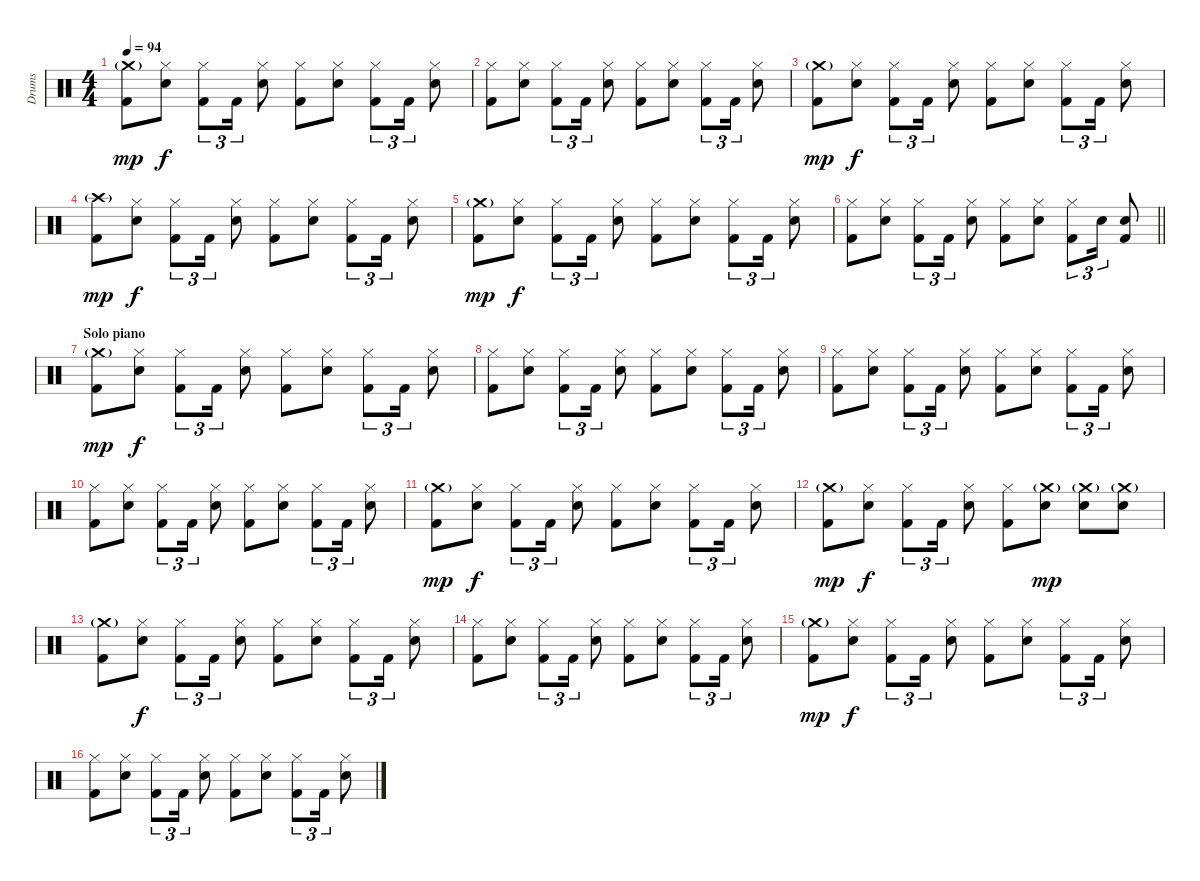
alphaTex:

\track ("Drums" "Drums") {instrument percussion}
\staff {score}
\articulation defaults
\ts (4 4)
\tempo 94
\clef neutral
\ks c
("Crash medium (hit)"{g} "Kick (hit) 2").8{dy mp} ("Hi-Hat (closed)" "Electric Snare (hit)").8{dy f} ("Hi-Hat (closed)" "Kick (hit) 2").8{tu (3 2)} "Kick (hit) 2".16{tu (3 2)} ("Hi-Hat (closed)" "Electric Snare (hit)").8 ("Hi-Hat (closed)" "Kick (hit) 2").8 ("Hi-Hat (closed)" "Electric Snare (hit)").8 ("Hi-Hat (closed)" "Kick (hit) 2").8{tu (3 2)} "Kick (hit) 2".16{tu (3 2)} ("Hi-Hat (closed)" "Electric Snare (hit)").8 |
("Hi-Hat (closed)" "Kick (hit) 2").8 ("Hi-Hat (closed)" "Electric Snare (hit)").8 ("Hi-Hat (closed)" "Kick (hit) 2").8{tu (3 2)} "Kick (hit) 2".16{tu (3 2)} ("Hi-Hat (closed)" "Electric Snare (hit)").8 ("Hi-Hat (closed)" "Kick (hit) 2").8 ("Hi-Hat (closed)" "Electric Snare (hit)").8 ("Hi-Hat (closed)" "Kick (hit) 2").8{tu (3 2)} "Kick (hit) 2".16{tu (3 2)} ("Hi-Hat (closed)" "Electric Snare (hit)").8 |
("Crash medium (hit)"{g} "Kick (hit) 2").8{dy mp} ("Hi-Hat (closed)" "Electric Snare (hit)").8{dy f} ("Hi-Hat (closed)" "Kick (hit) 2").8{tu (3 2)} "Kick (hit) 2".16{tu (3 2)} ("Hi-Hat (closed)" "Electric Snare (hit)").8 ("Hi-Hat (closed)" "Kick (hit) 2").8 ("Hi-Hat (closed)" "Electric Snare (hit)").8 ("Hi-Hat (closed)" "Kick (hit) 2").8{tu (3 2)} "Kick (hit) 2".16{tu (3 2)} ("Hi-Hat (closed)" "Electric Snare (hit)").8 |
("Crash high (hit)"{g} "Kick (hit) 2").8{dy mp} ("Hi-Hat (closed)" "Electric Snare (hit)").8{dy f} ("Hi-Hat (closed)" "Kick (hit) 2").8{tu (3 2)} "Kick (hit) 2".16{tu (3 2)} ("Hi-Hat (closed)" "Electric Snare (hit)").8 ("Hi-Hat (closed)" "Kick (hit) 2").8 ("Hi-Hat (closed)" "Electric Snare (hit)").8 ("Hi-Hat (closed)" "Kick (hit) 2").8{tu (3 2)} "Kick (hit) 2".16{tu (3 2)} ("Hi-Hat (closed)" "Electric Snare (hit)").8 |
("Crash medium (hit)"{g} "Kick (hit) 2").8{dy mp} ("Hi-Hat (closed)" "Electric Snare (hit)").8{dy f} ("Hi-Hat (closed)" "Kick (hit) 2").8{tu (3 2)} "Kick (hit) 2".16{tu (3 2)} ("Hi-Hat (closed)" "Electric Snare (hit)").8 ("Hi-Hat (closed)" "Kick (hit) 2").8 ("Hi-Hat (closed)" "Electric Snare (hit)").8 ("Hi-Hat (closed)" "Kick (hit) 2").8{tu (3 2)} "Kick (hit) 2".16{tu (3 2)} ("Hi-Hat (closed)" "Electric Snare (hit)").8 |
\barLineRight lightlight
("Hi-Hat (closed)" "Kick (hit) 2").8 ("Hi-Hat (closed)" "Electric Snare (hit)").8 ("Hi-Hat (closed)" "Kick (hit) 2").8{tu (3 2)} "Kick (hit) 2".16{tu (3 2)} ("Hi-Hat (closed)" "Electric Snare (hit)").8 ("Hi-Hat (closed)" "Kick (hit) 2").8 ("Hi-Hat (closed)" "Electric Snare (hit)").8 ("Hi-Hat (closed)" "Kick (hit) 2").8{tu (3 2)} "Electric Snare (hit)".16{tu (3 2)} ("Electric Snare (hit)" "Kick (hit) 2").8 |
\section ("" "Solo piano")
("Crash medium (hit)"{g} "Kick (hit) 2").8{dy mp} ("Hi-Hat (closed)" "Electric Snare (hit)").8{dy f} ("Hi-Hat (closed)" "Kick (hit) 2").8{tu (3 2)} "Kick (hit) 2".16{tu (3 2)} ("Hi-Hat (closed)" "Electric Snare (hit)").8 ("Hi-Hat (closed)" "Kick (hit) 2").8 ("Hi-Hat (closed)" "Electric Snare (hit)").8 ("Hi-Hat (closed)" "Kick (hit) 2").8{tu (3 2)} "Kick (hit) 2".16{tu (3 2)} ("Hi-Hat (closed)" "Electric Snare (hit)").8 |
("Hi-Hat (closed)" "Kick (hit) 2").8 ("Hi-Hat (closed)" "Electric Snare (hit)").8 ("Hi-Hat (closed)" "Kick (hit) 2").8{tu (3 2)} "Kick (hit) 2".16{tu (3 2)} ("Hi-Hat (closed)" "Electric Snare (hit)").8 ("Hi-Hat (closed)" "Kick (hit) 2").8 ("Hi-Hat (closed)" "Electric Snare (hit)").8 ("Hi-Hat (closed)" "Kick (hit) 2").8{tu (3 2)} "Kick (hit) 2".16{tu (3 2)} ("Hi-Hat (closed)" "Electric Snare (hit)").8 |
("Hi-Hat (closed)" "Kick (hit) 2").8 ("Hi-Hat (closed)" "Electric Snare (hit)").8 ("Hi-Hat (closed)" "Kick (hit) 2").8{tu (3 2)} "Kick (hit) 2".16{tu (3 2)} ("Hi-Hat (closed)" "Electric Snare (hit)").8 ("Hi-Hat (closed)" "Kick (hit) 2").8 ("Hi-Hat (closed)" "Electric Snare (hit)").8 ("Hi-Hat (closed)" "Kick (hit) 2").8{tu (3 2)} "Kick (hit) 2".16{tu (3 2)} ("Hi-Hat (closed)" "Electric Snare (hit)").8 |
("Hi-Hat (closed)" "Kick (hit) 2").8 ("Hi-Hat (closed)" "Electric Snare (hit)").8 ("Hi-Hat (closed)" "Kick (hit) 2").8{tu (3 2)} "Kick (hit) 2".16{tu (3 2)} ("Hi-Hat (closed)" "Electric Snare (hit)").8 ("Hi-Hat (closed)" "Kick (hit) 2").8 ("Hi-Hat (closed)" "Electric Snare (hit)").8 ("Hi-Hat (closed)" "Kick (hit) 2").8{tu (3 2)} "Kick (hit) 2".16{tu (3 2)} ("Hi-Hat (closed)" "Electric Snare (hit)").8 |
("Crash medium (hit)"{g} "Kick (hit) 2").8{dy mp} ("Hi-Hat (closed)" "Electric Snare (hit)").8{dy f} ("Hi-Hat (closed)" "Kick (hit) 2").8{tu (3 2)} "Kick (hit) 2".16{tu (3 2)} ("Hi-Hat (closed)" "Electric Snare (hit)").8 ("Hi-Hat (closed)" "Kick (hit) 2").8 ("Hi-Hat (closed)" "Electric Snare (hit)").8 ("Hi-Hat (closed)" "Kick (hit) 2").8{tu (3 2)} "Kick (hit) 2".16{tu (3 2)} ("Hi-Hat (closed)" "Electric Snare (hit)").8 |
("Crash medium (hit)"{g} "Kick (hit) 2").8{dy mp} ("Hi-Hat (closed)" "Electric Snare (hit)").8{dy f} ("Hi-Hat (closed)" "Kick (hit) 2").8{tu (3 2)} "Kick (hit) 2".16{tu (3 2)} ("Hi-Hat (closed)" "Electric Snare (hit)").8 ("Hi-Hat (closed)" "Kick (hit) 2").8 ("Crash medium (hit)"{g} "Electric Snare (hit)").8{dy mp} ("Crash medium (hit)"{g} "Electric Snare (hit)").8 ("Crash medium (hit)"{g} "Electric Snare (hit)").8 |
("Crash medium (hit)"{g} "Kick (hit) 2").8 ("Hi-Hat (closed)" "Electric Snare (hit)").8{dy f} ("Hi-Hat (closed)" "Kick (hit) 2").8{tu (3 2)} "Kick (hit) 2".16{tu (3 2)} ("Hi-Hat (closed)" "Electric Snare (hit)").8 ("Hi-Hat (closed)" "Kick (hit) 2").8 ("Hi-Hat (closed)" "Electric Snare (hit)").8 ("Hi-Hat (closed)" "Kick (hit) 2").8{tu (3 2)} "Kick (hit) 2".16{tu (3 2)} ("Hi-Hat (closed)" "Electric Snare (hit)").8 |
("Hi-Hat (closed)" "Kick (hit) 2").8 ("Hi-Hat (closed)" "Electric Snare (hit)").8 ("Hi-Hat (closed)" "Kick (hit) 2").8{tu (3 2)} "Kick (hit) 2".16{tu (3 2)} ("Hi-Hat (closed)" "Electric Snare (hit)").8 ("Hi-Hat (closed)" "Kick (hit) 2").8 ("Hi-Hat (closed)" "Electric Snare (hit)").8 ("Hi-Hat (closed)" "Kick (hit) 2").8{tu (3 2)} "Kick (hit) 2".16{tu (3 2)} ("Hi-Hat (closed)" "Electric Snare (hit)").8 |
("Crash medium (hit)"{g} "Kick (hit) 2").8{dy mp} ("Hi-Hat (closed)" "Electric Snare (hit)").8{dy f} ("Hi-Hat (closed)" "Kick (hit) 2").8{tu (3 2)} "Kick (hit) 2".16{tu (3 2)} ("Hi-Hat (closed)" "Electric Snare (hit)").8 ("Hi-Hat (closed)" "Kick (hit) 2").8 ("Hi-Hat (closed)" "Electric Snare (hit)").8 ("Hi-Hat (closed)" "Kick (hit) 2").8{tu (3 2)} "Kick (hit) 2".16{tu (3 2)} ("Hi-Hat (closed)" "Electric Snare (hit)").8 |
("Hi-Hat (closed)" "Kick (hit) 2").8 ("Hi-Hat (closed)" "Electric Snare (hit)").8 ("Hi-Hat (closed)" "Kick (hit) 2").8{tu (3 2)} "Kick (hit) 2".16{tu (3 2)} ("Hi-Hat (closed)" "Electric Snare (hit)").8 ("Hi-Hat (closed)" "Kick (hit) 2").8 ("Hi-Hat (closed)" "Electric Snare (hit)").8 ("Hi-Hat (closed)" "Kick (hit) 2").8{tu (3 2)} "Kick (hit) 2".16{tu (3 2)} ("Hi-Hat (closed)" "Electric Snare (hit)").8
